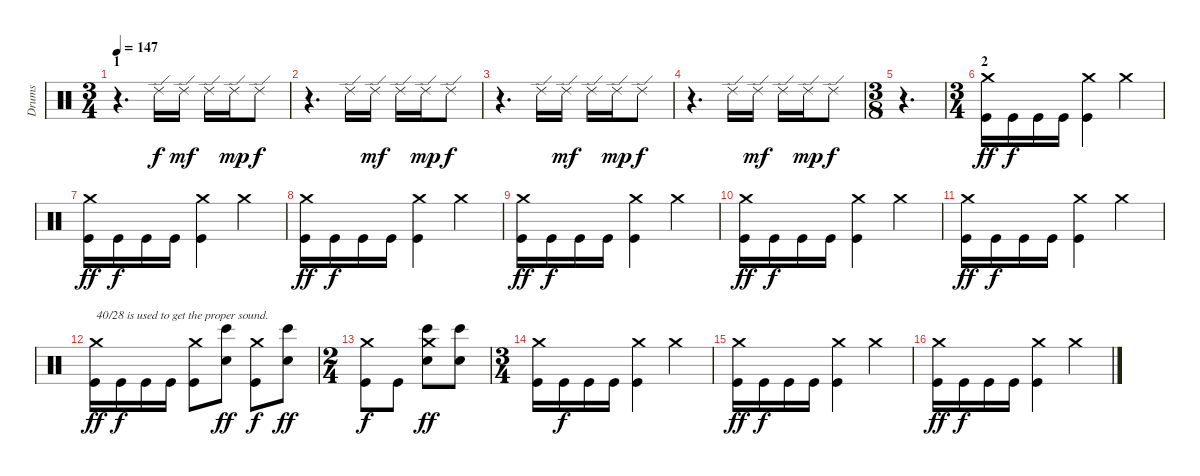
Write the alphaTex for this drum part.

\track ("Drums" "Drums") {instrument percussion}
\staff {score}
\articulation defaults
\ts (3 4)
\section ("" "1")
\tempo 147
\tempo 140
\tempo 147
\clef neutral
\ks c
r.4{d dy f} "Ride (edge) 2".16 "Ride (edge) 2".16{dy mf} "Ride (edge) 2".16 "Ride (edge) 2".16{dy mp} "Ride (edge) 2".8{dy f} |
r.4{d} "Ride (edge) 2".16 "Ride (edge) 2".16{dy mf} "Ride (edge) 2".16 "Ride (edge) 2".16{dy mp} "Ride (edge) 2".8{dy f} |
r.4{d} "Ride (edge) 2".16 "Ride (edge) 2".16{dy mf} "Ride (edge) 2".16 "Ride (edge) 2".16{dy mp} "Ride (edge) 2".8{dy f} |
r.4{d} "Ride (edge) 2".16 "Ride (edge) 2".16{dy mf} "Ride (edge) 2".16 "Ride (edge) 2".16{dy mp} "Ride (edge) 2".8{dy f} |
\ts (3 8)
r.4{d} |
\ts (3 4)
\section ("" "2")
("Kick (hit)" "Crash medium (hit)").16{dy ff} "Kick (hit)".16{dy f} "Kick (hit)".16 "Kick (hit)".16 ("Kick (hit)" "Crash medium (hit)").4 "Crash medium (hit)".4 |
("Kick (hit)" "Crash medium (hit)").16{dy ff} "Kick (hit)".16{dy f} "Kick (hit)".16 "Kick (hit)".16 ("Kick (hit)" "Crash medium (hit)").4 "Crash medium (hit)".4 |
("Kick (hit)" "Crash medium (hit)").16{dy ff} "Kick (hit)".16{dy f} "Kick (hit)".16 "Kick (hit)".16 ("Kick (hit)" "Crash medium (hit)").4 "Crash medium (hit)".4 |
("Kick (hit)" "Crash medium (hit)").16{dy ff} "Kick (hit)".16{dy f} "Kick (hit)".16 "Kick (hit)".16 ("Kick (hit)" "Crash medium (hit)").4 "Crash medium (hit)".4 |
("Kick (hit)" "Crash medium (hit)").16{dy ff} "Kick (hit)".16{dy f} "Kick (hit)".16 "Kick (hit)".16 ("Kick (hit)" "Crash medium (hit)").4 "Crash medium (hit)".4 |
("Kick (hit)" "Crash medium (hit)").16{dy ff} "Kick (hit)".16{dy f} "Kick (hit)".16 "Kick (hit)".16 ("Kick (hit)" "Crash medium (hit)").4 "Crash medium (hit)".4 |
("Kick (hit)" "Crash medium (hit)").16{txt "40/28 is used to get the proper sound." dy ff} "Kick (hit)".16{dy f} "Kick (hit)".16 "Kick (hit)".16 ("Kick (hit)" "Crash medium (hit)").8 ("Electric Snare (hit)" "Bongo High (hit)").8{dy ff} ("Kick (hit)" "Crash medium (hit)").8{dy f} ("Electric Snare (hit)" "Bongo High (hit)").8{dy ff} |
\ts (2 4)
("Kick (hit)" "Crash medium (hit)").8{dy f} "Kick (hit)".8 ("Electric Snare (hit)" "Bongo High (hit)" "Crash medium (hit)").8{dy ff} ("Electric Snare (hit)" "Bongo High (hit)").8 |
\ts (3 4)
("Kick (hit)" "Crash medium (hit)").16 "Kick (hit)".16{dy f} "Kick (hit)".16 "Kick (hit)".16 ("Kick (hit)" "Crash medium (hit)").4 "Crash medium (hit)".4 |
("Kick (hit)" "Crash medium (hit)").16{dy ff} "Kick (hit)".16{dy f} "Kick (hit)".16 "Kick (hit)".16 ("Kick (hit)" "Crash medium (hit)").4 "Crash medium (hit)".4 |
("Kick (hit)" "Crash medium (hit)").16{dy ff} "Kick (hit)".16{dy f} "Kick (hit)".16 "Kick (hit)".16 ("Kick (hit)" "Crash medium (hit)").4 "Crash medium (hit)".4
